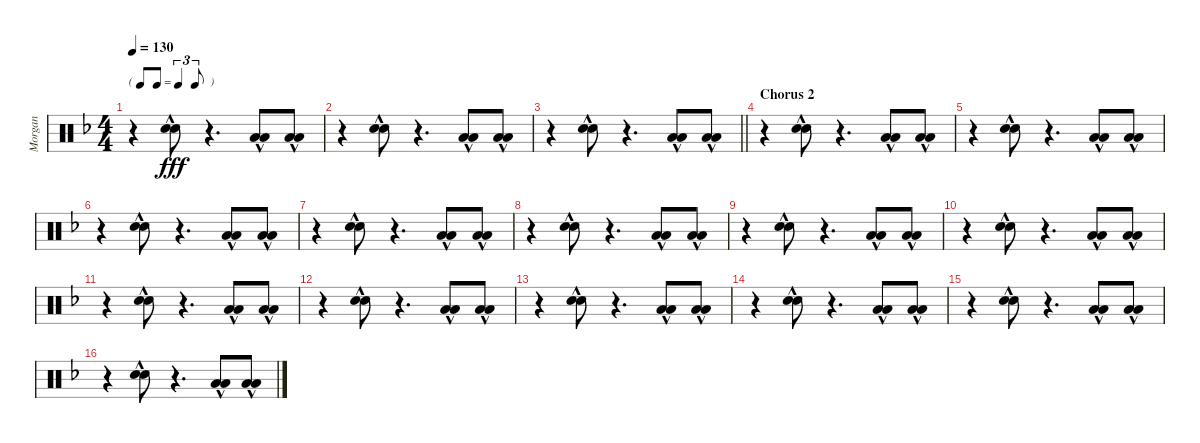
\track ("Morgan" "Morgan") {instrument percussion}
\staff {score}
\articulation defaults
\ts (4 4)
\tf triplet8th
\tempo 130
\clef neutral
\ks dminor
r.4{dy fff} ("Snare (hit) 2"{hac} "Snare (hit) 2"{hac}).8 r.4{d} ("Low Tom (hit)"{hac} "Low Tom (hit)"{hac}).8 ("Low Tom (hit)"{hac} "Low Tom (hit)"{hac}).8 |
r.4 ("Snare (hit) 2"{hac} "Snare (hit) 2"{hac}).8 r.4{d} ("Low Tom (hit)"{hac} "Low Tom (hit)"{hac}).8 ("Low Tom (hit)"{hac} "Low Tom (hit)"{hac}).8 |
\barLineRight lightlight
r.4 ("Snare (hit) 2"{hac} "Snare (hit) 2"{hac}).8 r.4{d} ("Low Tom (hit)"{hac} "Low Tom (hit)"{hac}).8 ("Low Tom (hit)"{hac} "Low Tom (hit)"{hac}).8 |
\section ("" "Chorus 2")
r.4 ("Snare (hit) 2"{hac} "Snare (hit) 2"{hac}).8 r.4{d} ("Low Tom (hit)"{hac} "Low Tom (hit)"{hac}).8 ("Low Tom (hit)"{hac} "Low Tom (hit)"{hac}).8 |
r.4 ("Snare (hit) 2"{hac} "Snare (hit) 2"{hac}).8 r.4{d} ("Low Tom (hit)"{hac} "Low Tom (hit)"{hac}).8 ("Low Tom (hit)"{hac} "Low Tom (hit)"{hac}).8 |
r.4 ("Snare (hit) 2"{hac} "Snare (hit) 2"{hac}).8 r.4{d} ("Low Tom (hit)"{hac} "Low Tom (hit)"{hac}).8 ("Low Tom (hit)"{hac} "Low Tom (hit)"{hac}).8 |
r.4 ("Snare (hit) 2"{hac} "Snare (hit) 2"{hac}).8 r.4{d} ("Low Tom (hit)"{hac} "Low Tom (hit)"{hac}).8 ("Low Tom (hit)"{hac} "Low Tom (hit)"{hac}).8 |
r.4 ("Snare (hit) 2"{hac} "Snare (hit) 2"{hac}).8 r.4{d} ("Low Tom (hit)"{hac} "Low Tom (hit)"{hac}).8 ("Low Tom (hit)"{hac} "Low Tom (hit)"{hac}).8 |
r.4 ("Snare (hit) 2"{hac} "Snare (hit) 2"{hac}).8 r.4{d} ("Low Tom (hit)"{hac} "Low Tom (hit)"{hac}).8 ("Low Tom (hit)"{hac} "Low Tom (hit)"{hac}).8 |
r.4 ("Snare (hit) 2"{hac} "Snare (hit) 2"{hac}).8 r.4{d} ("Low Tom (hit)"{hac} "Low Tom (hit)"{hac}).8 ("Low Tom (hit)"{hac} "Low Tom (hit)"{hac}).8 |
r.4 ("Snare (hit) 2"{hac} "Snare (hit) 2"{hac}).8 r.4{d} ("Low Tom (hit)"{hac} "Low Tom (hit)"{hac}).8 ("Low Tom (hit)"{hac} "Low Tom (hit)"{hac}).8 |
r.4 ("Snare (hit) 2"{hac} "Snare (hit) 2"{hac}).8 r.4{d} ("Low Tom (hit)"{hac} "Low Tom (hit)"{hac}).8 ("Low Tom (hit)"{hac} "Low Tom (hit)"{hac}).8 |
r.4 ("Snare (hit) 2"{hac} "Snare (hit) 2"{hac}).8 r.4{d} ("Low Tom (hit)"{hac} "Low Tom (hit)"{hac}).8 ("Low Tom (hit)"{hac} "Low Tom (hit)"{hac}).8 |
r.4 ("Snare (hit) 2"{hac} "Snare (hit) 2"{hac}).8 r.4{d} ("Low Tom (hit)"{hac} "Low Tom (hit)"{hac}).8 ("Low Tom (hit)"{hac} "Low Tom (hit)"{hac}).8 |
r.4 ("Snare (hit) 2"{hac} "Snare (hit) 2"{hac}).8 r.4{d} ("Low Tom (hit)"{hac} "Low Tom (hit)"{hac}).8 ("Low Tom (hit)"{hac} "Low Tom (hit)"{hac}).8 |
r.4 ("Snare (hit) 2"{hac} "Snare (hit) 2"{hac}).8 r.4{d} ("Low Tom (hit)"{hac} "Low Tom (hit)"{hac}).8 ("Low Tom (hit)"{hac} "Low Tom (hit)"{hac}).8
